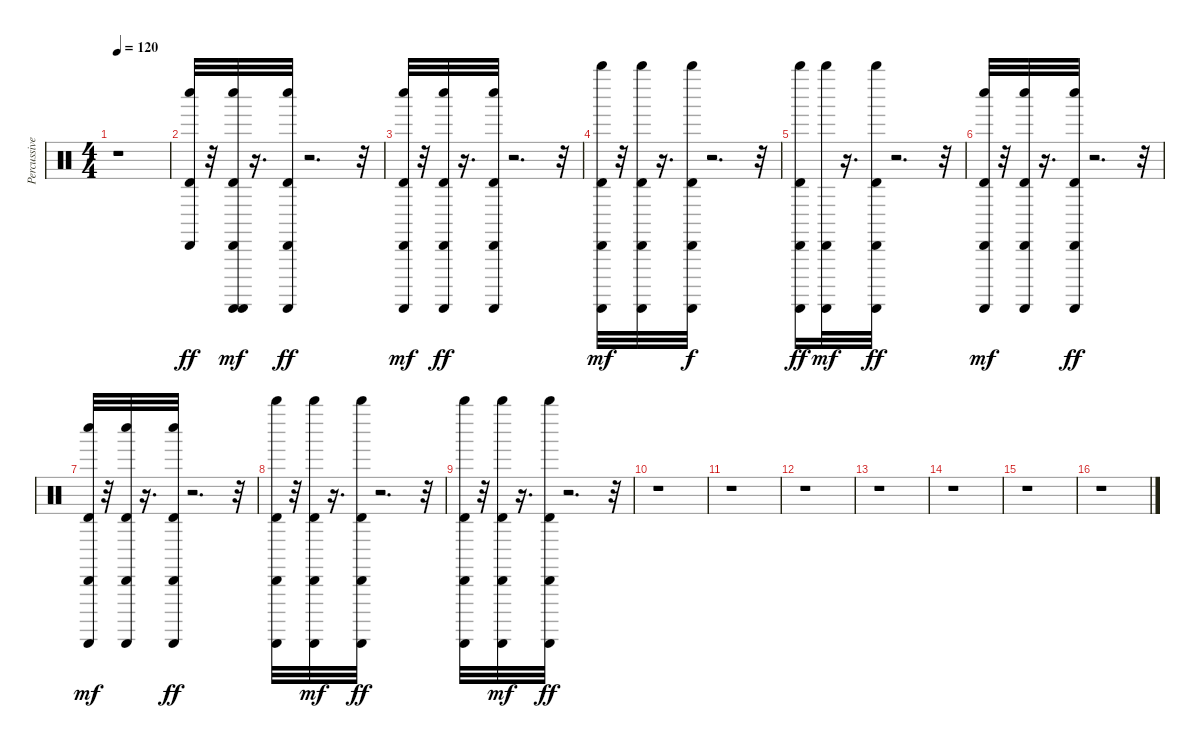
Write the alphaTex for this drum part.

\track ("Percussive Organ" "Percussive") {instrument percussion}
\staff {score}
\articulation defaults
\ts (4 4)
\tempo 120
\clef neutral
\ks c
r.1{dy ff} |
("Whistle low (hit)" "Timbale high (hit)" "Cabasa (hit)").32 r.32 ("Guiro (scrap-return)" "Timbale high (hit)" "Whistle low (hit)" "Guiro (scrap-return)" "Cabasa (hit)").32{dy mf} r.16{d} ("Whistle low (hit)" "Cabasa (hit)" "Timbale high (hit)" "Guiro (scrap-return)").32{dy ff} r.2{d} r.32 |
("Whistle low (hit)" "Cabasa (hit)" "Timbale high (hit)" "Guiro (scrap-return)").32{dy mf} r.32 ("Timbale high (hit)" "Guiro (scrap-return)" "Whistle low (hit)" "Cabasa (hit)").32{dy ff} r.16{d} ("Timbale high (hit)" "Whistle low (hit)" "Cabasa (hit)" "Guiro (scrap-return)").32 r.2{d} r.32 |
("Whistle high (hit)" "Cabasa (hit)" "Timbale high (hit)" "Guiro (scrap-return)").32{dy mf} r.32 ("Timbale high (hit)" "Guiro (scrap-return)" "Whistle high (hit)" "Cabasa (hit)").32 r.16{d} ("Whistle high (hit)" "Cabasa (hit)" "Guiro (scrap-return)" "Timbale high (hit)").32{dy f} r.2{d} r.32 |
("Whistle high (hit)" "Cabasa (hit)" "Guiro (scrap-return)" "Timbale high (hit)").16{dy ff} ("Guiro (scrap-return)" "Cabasa (hit)" "Whistle high (hit)").32{dy mf} r.16{d} ("Cabasa (hit)" "Whistle high (hit)" "Timbale high (hit)" "Guiro (scrap-return)").32{dy ff} r.2{d} r.32 |
("Whistle low (hit)" "Cabasa (hit)" "Timbale high (hit)" "Guiro (scrap-return)").32{dy mf} r.32 ("Guiro (scrap-return)" "Timbale high (hit)" "Whistle low (hit)" "Cabasa (hit)").32 r.16{d} ("Whistle low (hit)" "Cabasa (hit)" "Timbale high (hit)" "Guiro (scrap-return)").32{dy ff} r.2{d} r.32 |
("Whistle low (hit)" "Cabasa (hit)" "Timbale high (hit)" "Guiro (scrap-return)").32{dy mf} r.32 ("Guiro (scrap-return)" "Timbale high (hit)" "Whistle low (hit)" "Cabasa (hit)").32 r.16{d} ("Whistle low (hit)" "Cabasa (hit)" "Timbale high (hit)" "Guiro (scrap-return)").32{dy ff} r.2{d} r.32 |
("Whistle high (hit)" "Cabasa (hit)" "Guiro (scrap-return)" "Timbale high (hit)").32 r.32 ("Timbale high (hit)" "Whistle high (hit)" "Cabasa (hit)" "Guiro (scrap-return)").32{dy mf} r.16{d} ("Cabasa (hit)" "Whistle high (hit)" "Timbale high (hit)" "Guiro (scrap-return)").32{dy ff} r.2{d} r.32 |
("Whistle high (hit)" "Cabasa (hit)" "Timbale high (hit)" "Guiro (scrap-return)").32 r.32 ("Timbale high (hit)" "Guiro (scrap-return)" "Whistle high (hit)" "Cabasa (hit)").32{dy mf} r.16{d} ("Whistle high (hit)" "Cabasa (hit)" "Timbale high (hit)" "Guiro (scrap-return)").32{dy ff} r.2{d} r.32 |
r.1 |
r.1 |
r.1 |
r.1 |
r.1 |
r.1 |
r.1
